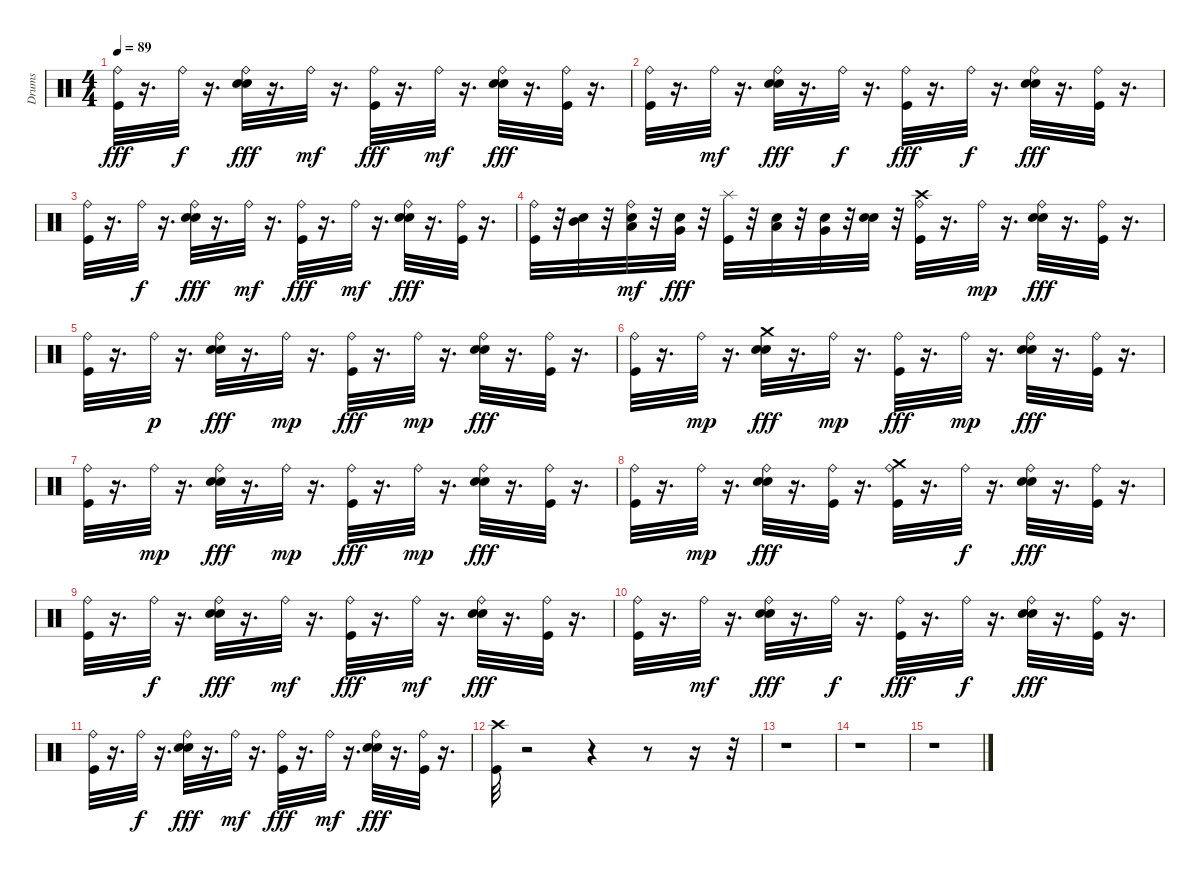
\track ("Drums" "Drums") {instrument percussion}
\staff {score}
\articulation defaults
\ts (4 4)
\tempo 89
\clef neutral
\ks c
("Ride (bell)" "Kick (hit)").32{dy fff} r.16{d} "Ride (bell)".32{dy f} r.16{d} ("Ride (bell)" "Snare (hit) 2" "Electric Snare (hit)").32{dy fff} r.16{d} "Ride (bell)".32{dy mf} r.16{d} ("Ride (bell)" "Kick (hit)").32{dy fff} r.16{d} "Ride (bell)".32{dy mf} r.16{d} ("Ride (bell)" "Electric Snare (hit)" "Snare (hit) 2").32{dy fff} r.16{d} ("Ride (bell)" "Kick (hit)").32 r.16{d} |
("Ride (bell)" "Kick (hit)").32 r.16{d} "Ride (bell)".32{dy mf} r.16{d} ("Ride (bell)" "Snare (hit) 2" "Electric Snare (hit)").32{dy fff} r.16{d} "Ride (bell)".32{dy f} r.16{d} ("Ride (bell)" "Kick (hit)").32{dy fff} r.16{d} "Ride (bell)".32{dy f} r.16{d} ("Ride (bell)" "Electric Snare (hit)" "Snare (hit) 2").32{dy fff} r.16{d} ("Ride (bell)" "Kick (hit)").32 r.16{d} |
("Ride (bell)" "Kick (hit)").32 r.16{d} "Ride (bell)".32{dy f} r.16{d} ("Ride (bell)" "Snare (hit) 2" "Electric Snare (hit)").32{dy fff} r.16{d} "Ride (bell)".32{dy mf} r.16{d} ("Ride (bell)" "Kick (hit)").32{dy fff} r.16{d} "Ride (bell)".32{dy mf} r.16{d} ("Ride (bell)" "Electric Snare (hit)" "Snare (hit) 2").32{dy fff} r.16{d} ("Ride (bell)" "Kick (hit)").32 r.16{d} |
("Ride (bell)" "Kick (hit)").32 r.32 ("Snare (hit) 2" "Mid Tom (hit)").32 r.32 ("Snare (hit) 2" "Low Tom (hit)" "Ride (bell)").32{dy mf} r.32 ("Snare (hit) 2" "Very Low Tom (hit)").32{dy fff} r.32 ("Kick (hit)" "Splash (hit)").32 r.32 ("Snare (hit) 2" "Low Tom (hit)").32 r.32 ("Snare (hit) 2" "Very Low Tom (hit)").32 r.32 ("Snare (hit) 2" "Electric Snare (hit)").32 r.32 ("Ride (bell)" "Crash high (hit)" "Kick (hit)").32 r.16{d} "Ride (bell)".32{dy mp} r.16{d} ("Ride (bell)" "Snare (hit) 2" "Electric Snare (hit)").32{dy fff} r.16{d} ("Ride (bell)" "Kick (hit)").32 r.16{d} |
("Ride (bell)" "Kick (hit)").32 r.16{d} "Ride (bell)".32{dy p} r.16{d} ("Ride (bell)" "Snare (hit) 2" "Electric Snare (hit)").32{dy fff} r.16{d} "Ride (bell)".32{dy mp} r.16{d} ("Ride (bell)" "Kick (hit)").32{dy fff} r.16{d} "Ride (bell)".32{dy mp} r.16{d} ("Ride (bell)" "Electric Snare (hit)" "Snare (hit) 2").32{dy fff} r.16{d} ("Ride (bell)" "Kick (hit)").32 r.16{d} |
("Ride (bell)" "Kick (hit)").32 r.16{d} "Ride (bell)".32{dy mp} r.16{d} ("Crash medium (hit)" "Snare (hit) 2" "Electric Snare (hit)").32{dy fff} r.16{d} "Ride (bell)".32{dy mp} r.16{d} ("Ride (bell)" "Kick (hit)").32{dy fff} r.16{d} "Ride (bell)".32{dy mp} r.16{d} ("Ride (bell)" "Electric Snare (hit)" "Snare (hit) 2").32{dy fff} r.16{d} ("Ride (bell)" "Kick (hit)").32 r.16{d} |
("Ride (bell)" "Kick (hit)").32 r.16{d} "Ride (bell)".32{dy mp} r.16{d} ("Ride (bell)" "Snare (hit) 2" "Electric Snare (hit)").32{dy fff} r.16{d} "Ride (bell)".32{dy mp} r.16{d} ("Ride (bell)" "Kick (hit)").32{dy fff} r.16{d} "Ride (bell)".32{dy mp} r.16{d} ("Ride (bell)" "Electric Snare (hit)" "Snare (hit) 2").32{dy fff} r.16{d} ("Ride (bell)" "Kick (hit)").32 r.16{d} |
("Ride (bell)" "Kick (hit)").32 r.16{d} "Ride (bell)".32{dy mp} r.16{d} ("Ride (bell)" "Snare (hit) 2" "Electric Snare (hit)").32{dy fff} r.16{d} ("Ride (bell)" "Kick (hit)").32 r.16{d} ("Ride (bell)" "Crash medium (hit)" "Kick (hit)").32 r.16{d} "Ride (bell)".32{dy f} r.16{d} ("Ride (bell)" "Snare (hit) 2" "Electric Snare (hit)").32{dy fff} r.16{d} ("Ride (bell)" "Kick (hit)").32 r.16{d} |
("Ride (bell)" "Kick (hit)").32 r.16{d} "Ride (bell)".32{dy f} r.16{d} ("Ride (bell)" "Snare (hit) 2" "Electric Snare (hit)").32{dy fff} r.16{d} "Ride (bell)".32{dy mf} r.16{d} ("Ride (bell)" "Kick (hit)").32{dy fff} r.16{d} "Ride (bell)".32{dy mf} r.16{d} ("Ride (bell)" "Electric Snare (hit)" "Snare (hit) 2").32{dy fff} r.16{d} ("Ride (bell)" "Kick (hit)").32 r.16{d} |
("Ride (bell)" "Kick (hit)").32 r.16{d} "Ride (bell)".32{dy mf} r.16{d} ("Ride (bell)" "Snare (hit) 2" "Electric Snare (hit)").32{dy fff} r.16{d} "Ride (bell)".32{dy f} r.16{d} ("Ride (bell)" "Kick (hit)").32{dy fff} r.16{d} "Ride (bell)".32{dy f} r.16{d} ("Ride (bell)" "Electric Snare (hit)" "Snare (hit) 2").32{dy fff} r.16{d} ("Ride (bell)" "Kick (hit)").32 r.16{d} |
("Ride (bell)" "Kick (hit)").32 r.16{d} "Ride (bell)".32{dy f} r.16{d} ("Ride (bell)" "Snare (hit) 2" "Electric Snare (hit)").32{dy fff} r.16{d} "Ride (bell)".32{dy mf} r.16{d} ("Ride (bell)" "Kick (hit)").32{dy fff} r.16{d} "Ride (bell)".32{dy mf} r.16{d} ("Ride (bell)" "Electric Snare (hit)" "Snare (hit) 2").32{dy fff} r.16{d} ("Ride (bell)" "Kick (hit)").32 r.16{d} |
("Crash high (hit)" "Kick (hit)").32 r.2 r.4 r.8 r.16 r.32 |
r.1 |
r.1 |
r.1
